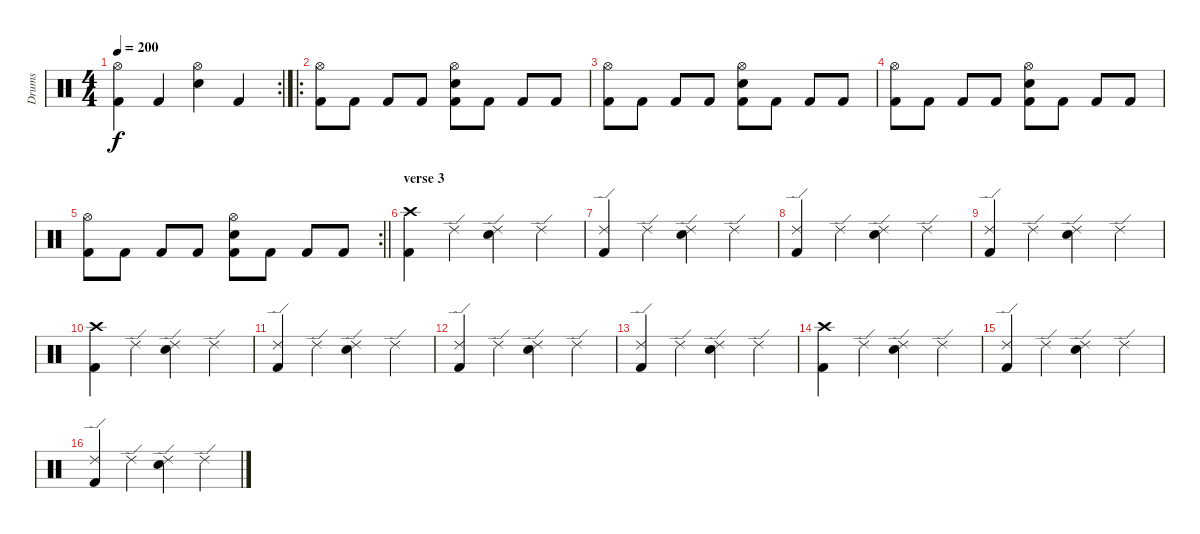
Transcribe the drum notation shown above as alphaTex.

\track ("Drums" "Drums") {instrument percussion}
\staff {score}
\articulation defaults
\rc 2
\ts (4 4)
\tempo 200
\clef neutral
\ks c
("Hi-Hat (open)" "Kick (hit) 2").4{dy f} "Kick (hit) 2".4 ("Hi-Hat (open)" "Electric Snare (hit)").4 "Kick (hit) 2".4 |
\ro
("Hi-Hat (open)" "Kick (hit) 2").8 "Kick (hit) 2".8 "Kick (hit) 2".8 "Kick (hit) 2".8 ("Hi-Hat (open)" "Electric Snare (hit)" "Kick (hit) 2").8 "Kick (hit) 2".8 "Kick (hit) 2".8 "Kick (hit) 2".8 |
("Hi-Hat (open)" "Kick (hit) 2").8 "Kick (hit) 2".8 "Kick (hit) 2".8 "Kick (hit) 2".8 ("Hi-Hat (open)" "Electric Snare (hit)" "Kick (hit) 2").8 "Kick (hit) 2".8 "Kick (hit) 2".8 "Kick (hit) 2".8 |
("Hi-Hat (open)" "Kick (hit) 2").8 "Kick (hit) 2".8 "Kick (hit) 2".8 "Kick (hit) 2".8 ("Hi-Hat (open)" "Electric Snare (hit)" "Kick (hit) 2").8 "Kick (hit) 2".8 "Kick (hit) 2".8 "Kick (hit) 2".8 |
\rc 2
\barLineRight lightlight
("Hi-Hat (open)" "Kick (hit) 2").8 "Kick (hit) 2".8 "Kick (hit) 2".8 "Kick (hit) 2".8 ("Hi-Hat (open)" "Electric Snare (hit)" "Kick (hit) 2").8 "Kick (hit) 2".8 "Kick (hit) 2".8 "Kick (hit) 2".8 |
\section ("" "verse 3")
("Crash high (hit)" "Kick (hit) 2").4 "Ride (edge) 2".4 ("Ride (edge) 2" "Electric Snare (hit)").4 "Ride (edge) 2".4 |
("Ride (edge) 2" "Kick (hit) 2").4 "Ride (edge) 2".4 ("Ride (edge) 2" "Electric Snare (hit)").4 "Ride (edge) 2".4 |
("Ride (edge) 2" "Kick (hit) 2").4 "Ride (edge) 2".4 ("Ride (edge) 2" "Electric Snare (hit)").4 "Ride (edge) 2".4 |
("Ride (edge) 2" "Kick (hit) 2").4 "Ride (edge) 2".4 ("Ride (edge) 2" "Electric Snare (hit)").4 "Ride (edge) 2".4 |
("Crash high (hit)" "Kick (hit) 2").4 "Ride (edge) 2".4 ("Ride (edge) 2" "Electric Snare (hit)").4 "Ride (edge) 2".4 |
("Ride (edge) 2" "Kick (hit) 2").4 "Ride (edge) 2".4 ("Ride (edge) 2" "Electric Snare (hit)").4 "Ride (edge) 2".4 |
("Ride (edge) 2" "Kick (hit) 2").4 "Ride (edge) 2".4 ("Ride (edge) 2" "Electric Snare (hit)").4 "Ride (edge) 2".4 |
("Ride (edge) 2" "Kick (hit) 2").4 "Ride (edge) 2".4 ("Ride (edge) 2" "Electric Snare (hit)").4 "Ride (edge) 2".4 |
("Crash high (hit)" "Kick (hit) 2").4 "Ride (edge) 2".4 ("Ride (edge) 2" "Electric Snare (hit)").4 "Ride (edge) 2".4 |
("Ride (edge) 2" "Kick (hit) 2").4 "Ride (edge) 2".4 ("Ride (edge) 2" "Electric Snare (hit)").4 "Ride (edge) 2".4 |
("Ride (edge) 2" "Kick (hit) 2").4 "Ride (edge) 2".4 ("Ride (edge) 2" "Electric Snare (hit)").4 "Ride (edge) 2".4
